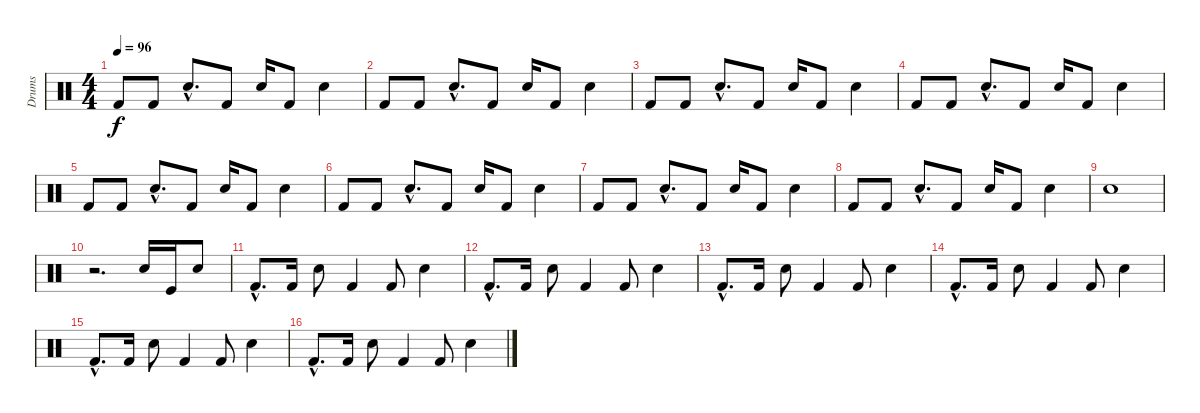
\track ("Drums" "Drums") {instrument percussion}
\staff {score}
\articulation defaults
\ts (4 4)
\tempo 96
\clef neutral
\ks c "Kick (hit) 2".8{dy f} "Kick (hit) 2".8 "Snare (hit) 2"{hac}.8{d} "Kick (hit) 2".8 "Snare (hit) 2".16 "Kick (hit) 2".8 "Snare (hit) 2".4
|
"Kick (hit) 2".8 "Kick (hit) 2".8 "Snare (hit) 2"{hac}.8{d} "Kick (hit) 2".8 "Snare (hit) 2".16 "Kick (hit) 2".8 "Snare (hit) 2".4 |
"Kick (hit) 2".8 "Kick (hit) 2".8 "Snare (hit) 2"{hac}.8{d} "Kick (hit) 2".8 "Snare (hit) 2".16 "Kick (hit) 2".8 "Snare (hit) 2".4 |
"Kick (hit) 2".8 "Kick (hit) 2".8 "Snare (hit) 2"{hac}.8{d} "Kick (hit) 2".8 "Snare (hit) 2".16 "Kick (hit) 2".8 "Snare (hit) 2".4 |
"Kick (hit) 2".8 "Kick (hit) 2".8 "Snare (hit) 2"{hac}.8{d} "Kick (hit) 2".8 "Snare (hit) 2".16 "Kick (hit) 2".8 "Snare (hit) 2".4 |
"Kick (hit) 2".8 "Kick (hit) 2".8 "Snare (hit) 2"{hac}.8{d} "Kick (hit) 2".8 "Snare (hit) 2".16 "Kick (hit) 2".8 "Snare (hit) 2".4 |
"Kick (hit) 2".8 "Kick (hit) 2".8 "Snare (hit) 2"{hac}.8{d} "Kick (hit) 2".8 "Snare (hit) 2".16 "Kick (hit) 2".8 "Snare (hit) 2".4 |
"Kick (hit) 2".8 "Kick (hit) 2".8 "Snare (hit) 2"{hac}.8{d} "Kick (hit) 2".8 "Snare (hit) 2".16 "Kick (hit) 2".8 "Snare (hit) 2".4 |
"Snare (hit) 2".1 |
r.2{d} "Snare (hit) 2".16 "Kick (hit)".16 "Snare (hit) 2".8 |
"Kick (hit) 2"{hac}.8{d} "Kick (hit) 2".16 "Snare (hit) 2".8 "Kick (hit) 2".4 "Kick (hit) 2".8 "Snare (hit) 2".4 |
"Kick (hit) 2"{hac}.8{d} "Kick (hit) 2".16 "Snare (hit) 2".8 "Kick (hit) 2".4 "Kick (hit) 2".8 "Snare (hit) 2".4 |
"Kick (hit) 2"{hac}.8{d} "Kick (hit) 2".16 "Snare (hit) 2".8 "Kick (hit) 2".4 "Kick (hit) 2".8 "Snare (hit) 2".4 |
"Kick (hit) 2"{hac}.8{d} "Kick (hit) 2".16 "Snare (hit) 2".8 "Kick (hit) 2".4 "Kick (hit) 2".8 "Snare (hit) 2".4 |
"Kick (hit) 2"{hac}.8{d} "Kick (hit) 2".16 "Snare (hit) 2".8 "Kick (hit) 2".4 "Kick (hit) 2".8 "Snare (hit) 2".4 |
"Kick (hit) 2"{hac}.8{d} "Kick (hit) 2".16 "Snare (hit) 2".8 "Kick (hit) 2".4 "Kick (hit) 2".8 "Snare (hit) 2".4
